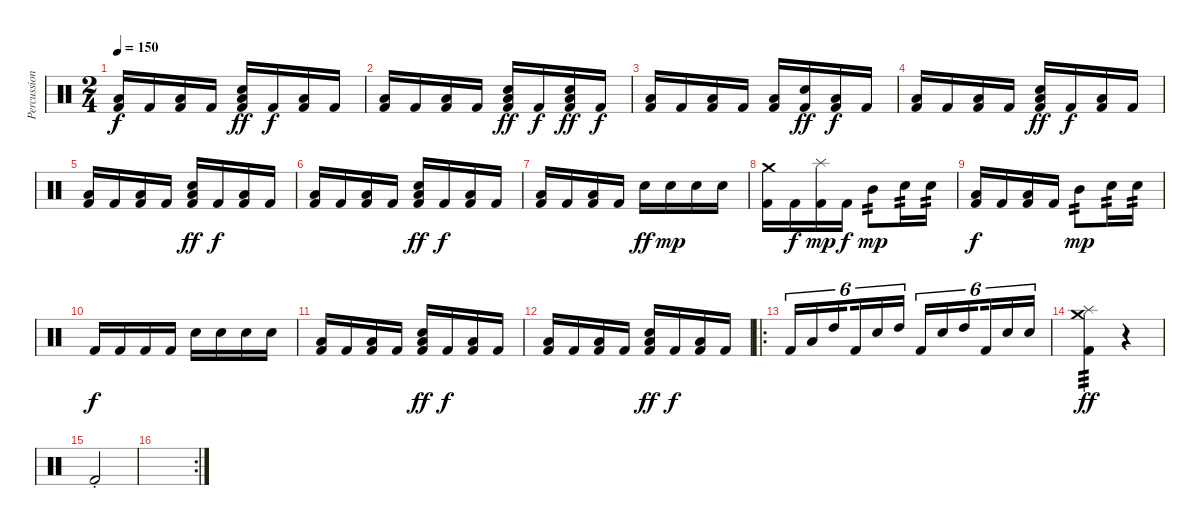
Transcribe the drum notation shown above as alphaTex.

\track ("Percussion" "Percussion") {instrument percussion}
\staff {score}
\articulation defaults
\ts (2 4)
\tempo 150
\clef neutral
\ks c
("Kick (hit) 2" "Low Tom (hit)").16{dy f} "Kick (hit) 2".16 ("Kick (hit) 2" "Low Tom (hit)").16 "Kick (hit) 2".16 ("Kick (hit) 2" "Snare (hit) 2" "Low Tom (hit)").16{dy ff} "Kick (hit) 2".16{dy f} ("Kick (hit) 2" "Low Tom (hit)").16 "Kick (hit) 2".16 |
("Kick (hit) 2" "Low Tom (hit)").16 "Kick (hit) 2".16 ("Kick (hit) 2" "Low Tom (hit)").16 "Kick (hit) 2".16 ("Kick (hit) 2" "Snare (hit) 2" "Low Tom (hit)").16{dy ff} "Kick (hit) 2".16{dy f} ("Kick (hit) 2" "Snare (hit) 2" "Low Tom (hit)").16{dy ff} "Kick (hit) 2".16{dy f} |
("Kick (hit) 2" "Low Tom (hit)").16 "Kick (hit) 2".16 ("Kick (hit) 2" "Low Tom (hit)").16 "Kick (hit) 2".16 ("Kick (hit) 2" "Low Tom (hit)").16 ("Kick (hit) 2" "Snare (hit) 2").16{dy ff} ("Kick (hit) 2" "Low Tom (hit)").16{dy f} "Kick (hit) 2".16 |
("Kick (hit) 2" "Low Tom (hit)").16 "Kick (hit) 2".16 ("Kick (hit) 2" "Low Tom (hit)").16 "Kick (hit) 2".16 ("Kick (hit) 2" "Snare (hit) 2" "Low Tom (hit)").16{dy ff} "Kick (hit) 2".16{dy f} ("Kick (hit) 2" "Low Tom (hit)").16 "Kick (hit) 2".16 |
("Kick (hit) 2" "Low Tom (hit)").16 "Kick (hit) 2".16 ("Kick (hit) 2" "Low Tom (hit)").16 "Kick (hit) 2".16 ("Kick (hit) 2" "Snare (hit) 2" "Low Tom (hit)").16{dy ff} "Kick (hit) 2".16{dy f} ("Kick (hit) 2" "Low Tom (hit)").16 "Kick (hit) 2".16 |
("Kick (hit) 2" "Low Tom (hit)").16 "Kick (hit) 2".16 ("Kick (hit) 2" "Low Tom (hit)").16 "Kick (hit) 2".16 ("Kick (hit) 2" "Snare (hit) 2" "Low Tom (hit)").16{dy ff} "Kick (hit) 2".16{dy f} ("Kick (hit) 2" "Low Tom (hit)").16 "Kick (hit) 2".16 |
("Kick (hit) 2" "Low Tom (hit)").16 "Kick (hit) 2".16 ("Kick (hit) 2" "Low Tom (hit)").16 "Kick (hit) 2".16 "Snare (hit) 2".16{dy ff} "Snare (hit) 2".16{dy mp} "Snare (hit) 2".16 "Snare (hit) 2".16 |
("Kick (hit) 2" "Crash medium (hit)").16 "Kick (hit) 2".16{dy f} ("Kick (hit) 2" "Splash (hit)").16{dy mp} "Kick (hit) 2".16{dy f} "Mid Tom (hit)".8{tp 2 dy mp} "Snare (hit) 2".16{tp 2} "Snare (hit) 2".16{tp 2} |
("Kick (hit) 2" "Low Tom (hit)").16{dy f} "Kick (hit) 2".16 ("Kick (hit) 2" "Low Tom (hit)").16 "Kick (hit) 2".16 "Mid Tom (hit)".8{tp 2 dy mp} "Snare (hit) 2".16{tp 2} "Snare (hit) 2".16{tp 2} |
"Kick (hit) 2".16{dy f} "Kick (hit) 2".16 "Kick (hit) 2".16 "Kick (hit) 2".16 "Snare (hit) 2".16 "Snare (hit) 2".16 "Snare (hit) 2".16 "Snare (hit) 2".16 |
("Kick (hit) 2" "Low Tom (hit)").16 "Kick (hit) 2".16 ("Kick (hit) 2" "Low Tom (hit)").16 "Kick (hit) 2".16 ("Kick (hit) 2" "Snare (hit) 2" "Low Tom (hit)").16{dy ff} "Kick (hit) 2".16{dy f} ("Kick (hit) 2" "Low Tom (hit)").16 "Kick (hit) 2".16 |
("Kick (hit) 2" "Low Tom (hit)").16 "Kick (hit) 2".16 ("Kick (hit) 2" "Low Tom (hit)").16 "Kick (hit) 2".16 ("Kick (hit) 2" "Snare (hit) 2" "Low Tom (hit)").16{dy ff} "Kick (hit) 2".16{dy f} ("Kick (hit) 2" "Low Tom (hit)").16 "Kick (hit) 2".16 |
\ro "Kick (hit) 2".16{tu (6 4)} "Low Tom (hit)".16{tu (6 4)} "High Tom (hit)".16{tu (6 4) beam splitsecondary} "Kick (hit) 2".16{tu (6 4)} "Snare (hit) 2".16{tu (6 4)} "High Tom (hit)".16{tu (6 4)} "Kick (hit) 2".16{tu (6 4)} "Metronome (bell)".16{tu (6 4)} "High Tom (hit)".16{tu (6 4) beam splitsecondary} "Kick (hit) 2".16{tu (6 4)} "Snare (hit) 2".16{tu (6 4)} "Snare (hit) 2".16{tu (6 4)}
|
("Kick (hit) 2" "Crash medium (hit)" "Splash (hit)").4{tp 3 dy ff} r.4 |
"Kick (hit) 2"{st}.2 |
\rc 2
